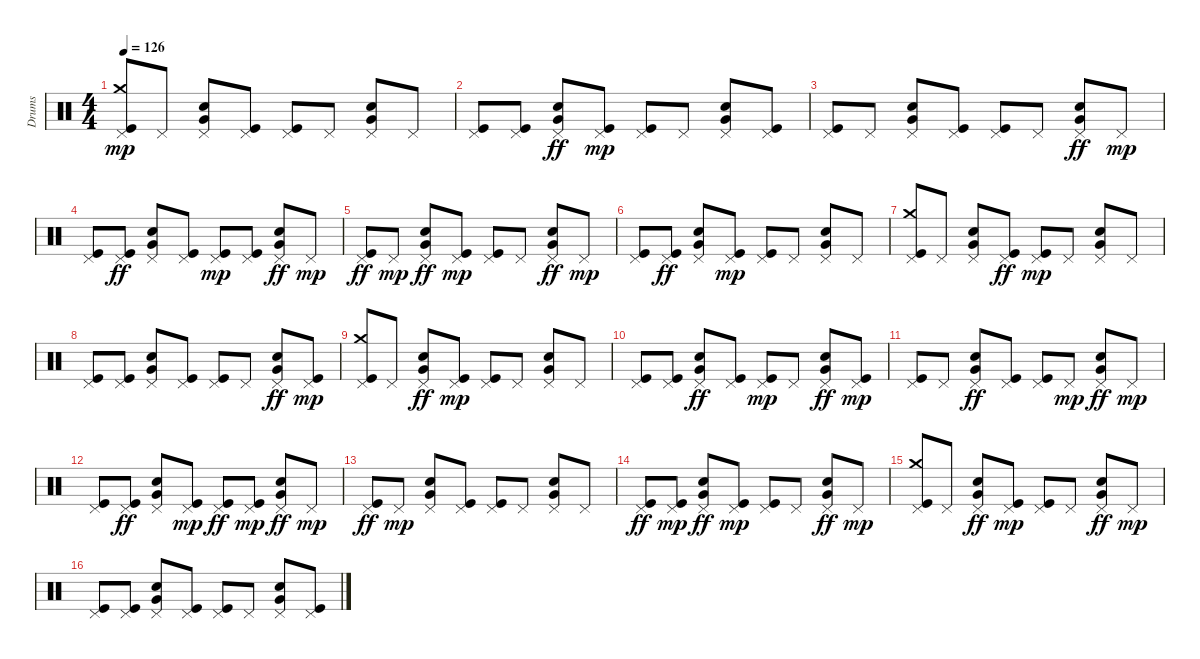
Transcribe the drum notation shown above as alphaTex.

\track ("Drums" "Drums") {instrument percussion}
\staff {score}
\articulation defaults
\ts (4 4)
\tempo 126
\clef neutral
\ks c
("Pedal Hi-Hat (hit)" "Crash medium (hit)" "Kick (hit)").8{dy mp} "Pedal Hi-Hat (hit)".8 ("Pedal Hi-Hat (hit)" "Very Low Tom (hit)" "Electric Snare (hit)").8 ("Pedal Hi-Hat (hit)" "Kick (hit)").8 ("Pedal Hi-Hat (hit)" "Kick (hit)").8 "Pedal Hi-Hat (hit)".8 ("Pedal Hi-Hat (hit)" "Very Low Tom (hit)" "Electric Snare (hit)").8 "Pedal Hi-Hat (hit)".8 |
("Pedal Hi-Hat (hit)" "Kick (hit)").8 ("Pedal Hi-Hat (hit)" "Kick (hit)").8 ("Very Low Tom (hit)" "Pedal Hi-Hat (hit)" "Electric Snare (hit)").8{dy ff} ("Pedal Hi-Hat (hit)" "Kick (hit)").8{dy mp} ("Pedal Hi-Hat (hit)" "Kick (hit)").8 "Pedal Hi-Hat (hit)".8 ("Pedal Hi-Hat (hit)" "Very Low Tom (hit)" "Electric Snare (hit)").8 ("Kick (hit)" "Pedal Hi-Hat (hit)").8 |
("Pedal Hi-Hat (hit)" "Kick (hit)").8 "Pedal Hi-Hat (hit)".8 ("Pedal Hi-Hat (hit)" "Electric Snare (hit)" "Very Low Tom (hit)").8 ("Pedal Hi-Hat (hit)" "Kick (hit)").8 ("Pedal Hi-Hat (hit)" "Kick (hit)").8 "Pedal Hi-Hat (hit)".8 ("Pedal Hi-Hat (hit)" "Very Low Tom (hit)" "Electric Snare (hit)").8{dy ff} "Pedal Hi-Hat (hit)".8{dy mp} |
("Pedal Hi-Hat (hit)" "Kick (hit)").8 ("Pedal Hi-Hat (hit)" "Kick (hit)").8{dy ff} ("Very Low Tom (hit)" "Pedal Hi-Hat (hit)" "Electric Snare (hit)").8 ("Pedal Hi-Hat (hit)" "Kick (hit)").8 ("Pedal Hi-Hat (hit)" "Kick (hit)").8{dy mp} ("Kick (hit)" "Pedal Hi-Hat (hit)").8 ("Pedal Hi-Hat (hit)" "Very Low Tom (hit)" "Electric Snare (hit)").8{dy ff} "Pedal Hi-Hat (hit)".8{dy mp} |
("Pedal Hi-Hat (hit)" "Kick (hit)").8{dy ff} "Pedal Hi-Hat (hit)".8{dy mp} ("Pedal Hi-Hat (hit)" "Electric Snare (hit)" "Very Low Tom (hit)").8{dy ff} ("Pedal Hi-Hat (hit)" "Kick (hit)").8{dy mp} ("Pedal Hi-Hat (hit)" "Kick (hit)").8 "Pedal Hi-Hat (hit)".8 ("Pedal Hi-Hat (hit)" "Very Low Tom (hit)" "Electric Snare (hit)").8{dy ff} "Pedal Hi-Hat (hit)".8{dy mp} |
("Pedal Hi-Hat (hit)" "Kick (hit)").8 ("Pedal Hi-Hat (hit)" "Kick (hit)").8{dy ff} ("Very Low Tom (hit)" "Pedal Hi-Hat (hit)" "Electric Snare (hit)").8 ("Pedal Hi-Hat (hit)" "Kick (hit)").8{dy mp} ("Pedal Hi-Hat (hit)" "Kick (hit)").8 "Pedal Hi-Hat (hit)".8 ("Pedal Hi-Hat (hit)" "Very Low Tom (hit)" "Electric Snare (hit)").8 "Pedal Hi-Hat (hit)".8 |
("Pedal Hi-Hat (hit)" "Crash medium (hit)" "Kick (hit)").8 "Pedal Hi-Hat (hit)".8 ("Pedal Hi-Hat (hit)" "Very Low Tom (hit)" "Electric Snare (hit)").8 ("Pedal Hi-Hat (hit)" "Kick (hit)").8{dy ff} ("Pedal Hi-Hat (hit)" "Kick (hit)").8{dy mp} "Pedal Hi-Hat (hit)".8 ("Pedal Hi-Hat (hit)" "Very Low Tom (hit)" "Electric Snare (hit)").8 "Pedal Hi-Hat (hit)".8 |
("Pedal Hi-Hat (hit)" "Kick (hit)").8 ("Pedal Hi-Hat (hit)" "Kick (hit)").8 ("Very Low Tom (hit)" "Pedal Hi-Hat (hit)" "Electric Snare (hit)").8 ("Pedal Hi-Hat (hit)" "Kick (hit)").8 ("Pedal Hi-Hat (hit)" "Kick (hit)").8 "Pedal Hi-Hat (hit)".8 ("Pedal Hi-Hat (hit)" "Very Low Tom (hit)" "Electric Snare (hit)").8{dy ff} ("Kick (hit)" "Pedal Hi-Hat (hit)").8{dy mp} |
("Pedal Hi-Hat (hit)" "Crash medium (hit)" "Kick (hit)").8 "Pedal Hi-Hat (hit)".8 ("Pedal Hi-Hat (hit)" "Very Low Tom (hit)" "Electric Snare (hit)").8{dy ff} ("Pedal Hi-Hat (hit)" "Kick (hit)").8{dy mp} ("Pedal Hi-Hat (hit)" "Kick (hit)").8 "Pedal Hi-Hat (hit)".8 ("Pedal Hi-Hat (hit)" "Very Low Tom (hit)" "Electric Snare (hit)").8 "Pedal Hi-Hat (hit)".8 |
("Pedal Hi-Hat (hit)" "Kick (hit)").8 ("Pedal Hi-Hat (hit)" "Kick (hit)").8 ("Very Low Tom (hit)" "Pedal Hi-Hat (hit)" "Electric Snare (hit)").8{dy ff} ("Pedal Hi-Hat (hit)" "Kick (hit)").8 ("Pedal Hi-Hat (hit)" "Kick (hit)").8{dy mp} "Pedal Hi-Hat (hit)".8 ("Pedal Hi-Hat (hit)" "Very Low Tom (hit)" "Electric Snare (hit)").8{dy ff} ("Kick (hit)" "Pedal Hi-Hat (hit)").8{dy mp} |
("Pedal Hi-Hat (hit)" "Kick (hit)").8 "Pedal Hi-Hat (hit)".8 ("Pedal Hi-Hat (hit)" "Electric Snare (hit)" "Very Low Tom (hit)").8{dy ff} ("Pedal Hi-Hat (hit)" "Kick (hit)").8 ("Pedal Hi-Hat (hit)" "Kick (hit)").8 "Pedal Hi-Hat (hit)".8{dy mp} ("Pedal Hi-Hat (hit)" "Very Low Tom (hit)" "Electric Snare (hit)").8{dy ff} "Pedal Hi-Hat (hit)".8{dy mp} |
("Pedal Hi-Hat (hit)" "Kick (hit)").8 ("Pedal Hi-Hat (hit)" "Kick (hit)").8{dy ff} ("Very Low Tom (hit)" "Pedal Hi-Hat (hit)" "Electric Snare (hit)").8 ("Pedal Hi-Hat (hit)" "Kick (hit)").8{dy mp} ("Pedal Hi-Hat (hit)" "Kick (hit)").8{dy ff} ("Kick (hit)" "Pedal Hi-Hat (hit)").8{dy mp} ("Pedal Hi-Hat (hit)" "Very Low Tom (hit)" "Electric Snare (hit)").8{dy ff} "Pedal Hi-Hat (hit)".8{dy mp} |
("Pedal Hi-Hat (hit)" "Kick (hit)").8{dy ff} "Pedal Hi-Hat (hit)".8{dy mp} ("Pedal Hi-Hat (hit)" "Electric Snare (hit)" "Very Low Tom (hit)").8 ("Pedal Hi-Hat (hit)" "Kick (hit)").8 ("Pedal Hi-Hat (hit)" "Kick (hit)").8 "Pedal Hi-Hat (hit)".8 ("Pedal Hi-Hat (hit)" "Very Low Tom (hit)" "Electric Snare (hit)").8 "Pedal Hi-Hat (hit)".8 |
("Pedal Hi-Hat (hit)" "Kick (hit)").8{dy ff} ("Pedal Hi-Hat (hit)" "Kick (hit)").8{dy mp} ("Very Low Tom (hit)" "Pedal Hi-Hat (hit)" "Electric Snare (hit)").8{dy ff} ("Pedal Hi-Hat (hit)" "Kick (hit)").8{dy mp} ("Pedal Hi-Hat (hit)" "Kick (hit)").8 "Pedal Hi-Hat (hit)".8 ("Pedal Hi-Hat (hit)" "Very Low Tom (hit)" "Electric Snare (hit)").8{dy ff} "Pedal Hi-Hat (hit)".8{dy mp} |
("Pedal Hi-Hat (hit)" "Crash medium (hit)" "Kick (hit)").8 "Pedal Hi-Hat (hit)".8 ("Pedal Hi-Hat (hit)" "Very Low Tom (hit)" "Electric Snare (hit)").8{dy ff} ("Pedal Hi-Hat (hit)" "Kick (hit)").8{dy mp} ("Pedal Hi-Hat (hit)" "Kick (hit)").8 "Pedal Hi-Hat (hit)".8 ("Pedal Hi-Hat (hit)" "Very Low Tom (hit)" "Electric Snare (hit)").8{dy ff} "Pedal Hi-Hat (hit)".8{dy mp} |
("Pedal Hi-Hat (hit)" "Kick (hit)").8 ("Pedal Hi-Hat (hit)" "Kick (hit)").8 ("Very Low Tom (hit)" "Pedal Hi-Hat (hit)" "Electric Snare (hit)").8 ("Pedal Hi-Hat (hit)" "Kick (hit)").8 ("Pedal Hi-Hat (hit)" "Kick (hit)").8 "Pedal Hi-Hat (hit)".8 ("Pedal Hi-Hat (hit)" "Very Low Tom (hit)" "Electric Snare (hit)").8 ("Kick (hit)" "Pedal Hi-Hat (hit)").8
